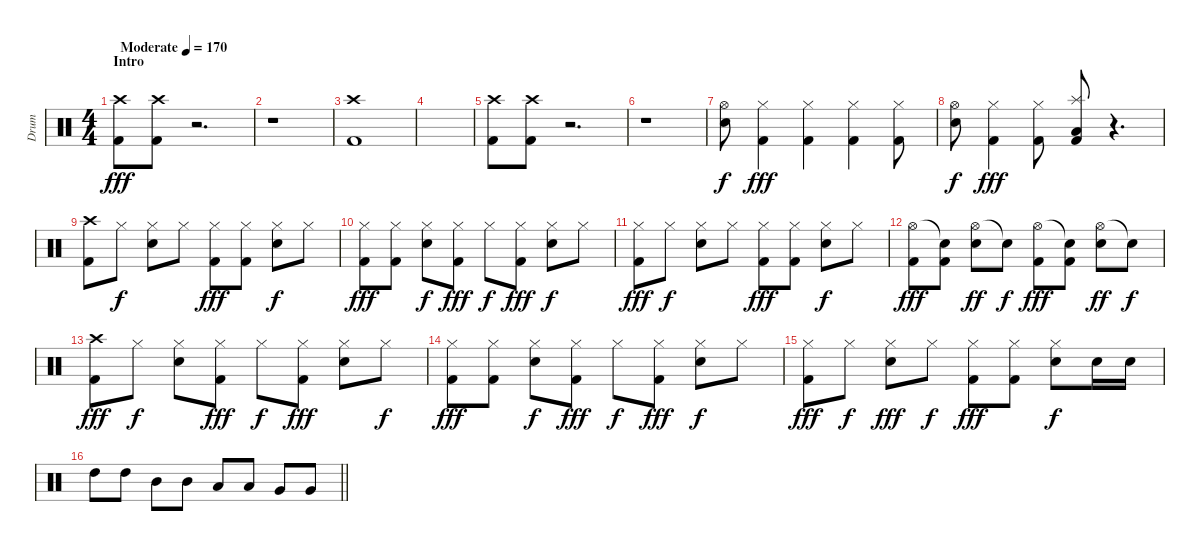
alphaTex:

\track ("Drum" "Drum") {instrument percussion}
\staff {score}
\articulation defaults
\ts (4 4)
\section ("" "Intro")
\tempo (170 "Moderate")
\clef neutral
\ks c
("Crash high (hit)" "Kick (hit) 2").8{dy fff} ("Crash high (hit)" "Kick (hit) 2").8 r.2{d} |
r.1 |
("Crash high (hit)" "Kick (hit) 2").1 |
|
("Crash high (hit)" "Kick (hit) 2").8 ("Crash high (hit)" "Kick (hit) 2").8 r.2{d} |
r.1 |
("Hi-Hat (open)" "Snare (hit) 2").8{dy f} ("Hi-Hat (closed)" "Kick (hit) 2").4{dy fff} ("Hi-Hat (closed)" "Kick (hit) 2").4 ("Hi-Hat (closed)" "Kick (hit) 2").4 ("Hi-Hat (closed)" "Kick (hit) 2").8 |
("Hi-Hat (open)" "Snare (hit) 2").8{dy f} ("Hi-Hat (closed)" "Kick (hit) 2").4{dy fff} ("Hi-Hat (closed)" "Kick (hit) 2").8 ("Splash (hit)" "Low Tom (hit)" "Kick (hit) 2").8 r.4{d} |
("Crash high (hit)" "Kick (hit) 2").8 "Hi-Hat (closed)".8{dy f} ("Hi-Hat (closed)" "Snare (hit) 2").8 "Hi-Hat (closed)".8 ("Hi-Hat (closed)" "Kick (hit) 2").8{dy fff} ("Hi-Hat (closed)" "Kick (hit) 2").8 ("Hi-Hat (closed)" "Snare (hit) 2").8{dy f} "Hi-Hat (closed)".8 |
("Hi-Hat (closed)" "Kick (hit) 2").8{dy fff} ("Hi-Hat (closed)" "Kick (hit) 2").8 ("Hi-Hat (closed)" "Snare (hit) 2").8{dy f} ("Hi-Hat (closed)" "Kick (hit) 2").8{dy fff} "Hi-Hat (closed)".8{dy f} ("Hi-Hat (closed)" "Kick (hit) 2").8{dy fff} ("Hi-Hat (closed)" "Snare (hit) 2").8{dy f} "Hi-Hat (closed)".8 |
("Hi-Hat (closed)" "Kick (hit) 2").8{dy fff} "Hi-Hat (closed)".8{dy f} ("Hi-Hat (closed)" "Snare (hit) 2").8 "Hi-Hat (closed)".8 ("Hi-Hat (closed)" "Kick (hit) 2").8{dy fff} ("Hi-Hat (closed)" "Kick (hit) 2").8 ("Hi-Hat (closed)" "Snare (hit) 2").8{dy f} "Hi-Hat (closed)".8 |
("Hi-Hat (open)" "Kick (hit) 2").8{dy fff} ("Snare (hit)"{t} "Kick (hit) 2").8 ("Hi-Hat (open)" "Snare (hit) 2").8{dy ff} "Snare (hit)"{t}.8{dy f} ("Hi-Hat (open)" "Kick (hit) 2").8{dy fff} ("Snare (hit)"{t} "Kick (hit) 2").8 ("Hi-Hat (open)" "Snare (hit) 2").8{dy ff} "Snare (hit)"{t}.8{dy f} |
("Crash high (hit)" "Kick (hit) 2").8{dy fff} "Hi-Hat (closed)".8{dy f} ("Hi-Hat (closed)" "Snare (hit) 2").8 ("Hi-Hat (closed)" "Kick (hit) 2").8{dy fff} "Hi-Hat (closed)".8{dy f} ("Hi-Hat (closed)" "Kick (hit) 2").8{dy fff} ("Hi-Hat (closed)" "Snare (hit) 2").8 "Hi-Hat (closed)".8{dy f} |
("Hi-Hat (closed)" "Kick (hit) 2").8{dy fff} ("Hi-Hat (closed)" "Kick (hit) 2").8 ("Hi-Hat (closed)" "Snare (hit) 2").8{dy f} ("Hi-Hat (closed)" "Kick (hit) 2").8{dy fff} "Hi-Hat (closed)".8{dy f} ("Hi-Hat (closed)" "Kick (hit) 2").8{dy fff} ("Hi-Hat (closed)" "Snare (hit) 2").8{dy f} "Hi-Hat (closed)".8 |
("Hi-Hat (closed)" "Kick (hit) 2").8{dy fff} "Hi-Hat (closed)".8{dy f} ("Hi-Hat (closed)" "Snare (hit) 2").8{dy fff} "Hi-Hat (closed)".8{dy f} ("Hi-Hat (closed)" "Kick (hit) 2").8{dy fff} ("Hi-Hat (closed)" "Kick (hit) 2").8 ("Hi-Hat (closed)" "Snare (hit) 2").8{dy f} "Snare (hit) 2".16 "Snare (hit) 2".16 |
\barLineRight lightlight "High Tom (hit)".8 "High Tom (hit)".8 "Mid Tom (hit)".8 "Mid Tom (hit)".8 "Low Tom (hit)".8 "Low Tom (hit)".8 "Very Low Tom (hit)".8 "Very Low Tom (hit)".8
